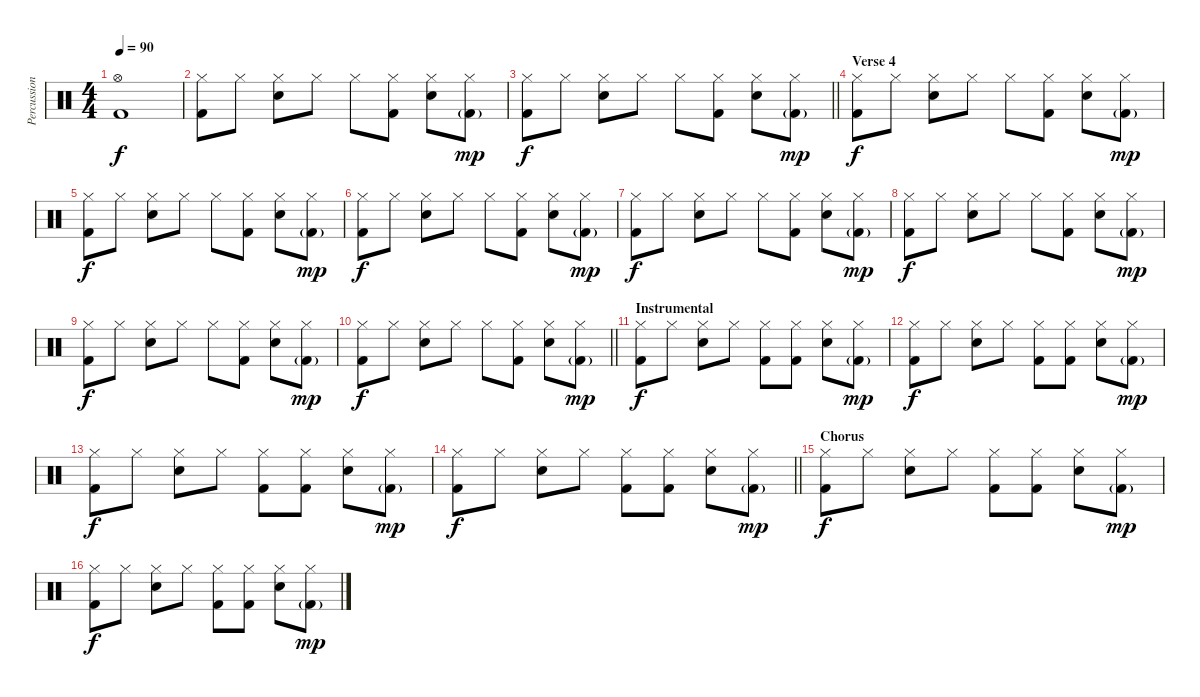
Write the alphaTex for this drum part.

\track ("Percussion" "Percussion") {instrument percussion}
\staff {score}
\articulation defaults
\ts (4 4)
\tempo 90
\clef neutral
\ks c
("Hi-Hat (open)" "Kick (hit) 2").1{dy f} |
("Hi-Hat (closed)" "Kick (hit) 2").8 "Hi-Hat (closed)".8 ("Hi-Hat (closed)" "Snare (hit) 2").8 "Hi-Hat (closed)".8 "Hi-Hat (closed)".8 ("Hi-Hat (closed)" "Kick (hit) 2").8 ("Hi-Hat (closed)" "Snare (hit) 2").8 ("Hi-Hat (closed)" "Kick (hit) 2"{g}).8{dy mp} |
\barLineRight lightlight
("Hi-Hat (closed)" "Kick (hit) 2").8{dy f} "Hi-Hat (closed)".8 ("Hi-Hat (closed)" "Snare (hit) 2").8 "Hi-Hat (closed)".8 "Hi-Hat (closed)".8 ("Hi-Hat (closed)" "Kick (hit) 2").8 ("Hi-Hat (closed)" "Snare (hit) 2").8 ("Hi-Hat (closed)" "Kick (hit) 2"{g}).8{dy mp} |
\section ("" "Verse 4")
("Hi-Hat (closed)" "Kick (hit) 2").8{dy f} "Hi-Hat (closed)".8 ("Hi-Hat (closed)" "Snare (hit) 2").8 "Hi-Hat (closed)".8 "Hi-Hat (closed)".8 ("Hi-Hat (closed)" "Kick (hit) 2").8 ("Hi-Hat (closed)" "Snare (hit) 2").8 ("Hi-Hat (closed)" "Kick (hit) 2"{g}).8{dy mp} |
("Hi-Hat (closed)" "Kick (hit) 2").8{dy f} "Hi-Hat (closed)".8 ("Hi-Hat (closed)" "Snare (hit) 2").8 "Hi-Hat (closed)".8 "Hi-Hat (closed)".8 ("Hi-Hat (closed)" "Kick (hit) 2").8 ("Hi-Hat (closed)" "Snare (hit) 2").8 ("Hi-Hat (closed)" "Kick (hit) 2"{g}).8{dy mp} |
("Hi-Hat (closed)" "Kick (hit) 2").8{dy f} "Hi-Hat (closed)".8 ("Hi-Hat (closed)" "Snare (hit) 2").8 "Hi-Hat (closed)".8 "Hi-Hat (closed)".8 ("Hi-Hat (closed)" "Kick (hit) 2").8 ("Hi-Hat (closed)" "Snare (hit) 2").8 ("Hi-Hat (closed)" "Kick (hit) 2"{g}).8{dy mp} |
("Hi-Hat (closed)" "Kick (hit) 2").8{dy f} "Hi-Hat (closed)".8 ("Hi-Hat (closed)" "Snare (hit) 2").8 "Hi-Hat (closed)".8 "Hi-Hat (closed)".8 ("Hi-Hat (closed)" "Kick (hit) 2").8 ("Hi-Hat (closed)" "Snare (hit) 2").8 ("Hi-Hat (closed)" "Kick (hit) 2"{g}).8{dy mp} |
("Hi-Hat (closed)" "Kick (hit) 2").8{dy f} "Hi-Hat (closed)".8 ("Hi-Hat (closed)" "Snare (hit) 2").8 "Hi-Hat (closed)".8 "Hi-Hat (closed)".8 ("Hi-Hat (closed)" "Kick (hit) 2").8 ("Hi-Hat (closed)" "Snare (hit) 2").8 ("Hi-Hat (closed)" "Kick (hit) 2"{g}).8{dy mp} |
("Hi-Hat (closed)" "Kick (hit) 2").8{dy f} "Hi-Hat (closed)".8 ("Hi-Hat (closed)" "Snare (hit) 2").8 "Hi-Hat (closed)".8 "Hi-Hat (closed)".8 ("Hi-Hat (closed)" "Kick (hit) 2").8 ("Hi-Hat (closed)" "Snare (hit) 2").8 ("Hi-Hat (closed)" "Kick (hit) 2"{g}).8{dy mp} |
\barLineRight lightlight
("Hi-Hat (closed)" "Kick (hit) 2").8{dy f} "Hi-Hat (closed)".8 ("Hi-Hat (closed)" "Snare (hit) 2").8 "Hi-Hat (closed)".8 "Hi-Hat (closed)".8 ("Hi-Hat (closed)" "Kick (hit) 2").8 ("Hi-Hat (closed)" "Snare (hit) 2").8 ("Hi-Hat (closed)" "Kick (hit) 2"{g}).8{dy mp} |
\section ("" "Instrumental")
("Hi-Hat (closed)" "Kick (hit) 2").8{dy f} "Hi-Hat (closed)".8 ("Hi-Hat (closed)" "Snare (hit) 2").8 "Hi-Hat (closed)".8 ("Hi-Hat (closed)" "Kick (hit) 2").8 ("Hi-Hat (closed)" "Kick (hit) 2").8 ("Hi-Hat (closed)" "Snare (hit) 2").8 ("Hi-Hat (closed)" "Kick (hit) 2"{g}).8{dy mp} |
("Hi-Hat (closed)" "Kick (hit) 2").8{dy f} "Hi-Hat (closed)".8 ("Hi-Hat (closed)" "Snare (hit) 2").8 "Hi-Hat (closed)".8 ("Hi-Hat (closed)" "Kick (hit) 2").8 ("Hi-Hat (closed)" "Kick (hit) 2").8 ("Hi-Hat (closed)" "Snare (hit) 2").8 ("Hi-Hat (closed)" "Kick (hit) 2"{g}).8{dy mp} |
("Hi-Hat (closed)" "Kick (hit) 2").8{dy f} "Hi-Hat (closed)".8 ("Hi-Hat (closed)" "Snare (hit) 2").8 "Hi-Hat (closed)".8 ("Hi-Hat (closed)" "Kick (hit) 2").8 ("Hi-Hat (closed)" "Kick (hit) 2").8 ("Hi-Hat (closed)" "Snare (hit) 2").8 ("Hi-Hat (closed)" "Kick (hit) 2"{g}).8{dy mp} |
\barLineRight lightlight
("Hi-Hat (closed)" "Kick (hit) 2").8{dy f} "Hi-Hat (closed)".8 ("Hi-Hat (closed)" "Snare (hit) 2").8 "Hi-Hat (closed)".8 ("Hi-Hat (closed)" "Kick (hit) 2").8 ("Hi-Hat (closed)" "Kick (hit) 2").8 ("Hi-Hat (closed)" "Snare (hit) 2").8 ("Hi-Hat (closed)" "Kick (hit) 2"{g}).8{dy mp} |
\section ("" "Chorus")
("Hi-Hat (closed)" "Kick (hit) 2").8{dy f} "Hi-Hat (closed)".8 ("Hi-Hat (closed)" "Snare (hit) 2").8 "Hi-Hat (closed)".8 ("Hi-Hat (closed)" "Kick (hit) 2").8 ("Hi-Hat (closed)" "Kick (hit) 2").8 ("Hi-Hat (closed)" "Snare (hit) 2").8 ("Hi-Hat (closed)" "Kick (hit) 2"{g}).8{dy mp} |
("Hi-Hat (closed)" "Kick (hit) 2").8{dy f} "Hi-Hat (closed)".8 ("Hi-Hat (closed)" "Snare (hit) 2").8 "Hi-Hat (closed)".8 ("Hi-Hat (closed)" "Kick (hit) 2").8 ("Hi-Hat (closed)" "Kick (hit) 2").8 ("Hi-Hat (closed)" "Snare (hit) 2").8 ("Hi-Hat (closed)" "Kick (hit) 2"{g}).8{dy mp}
